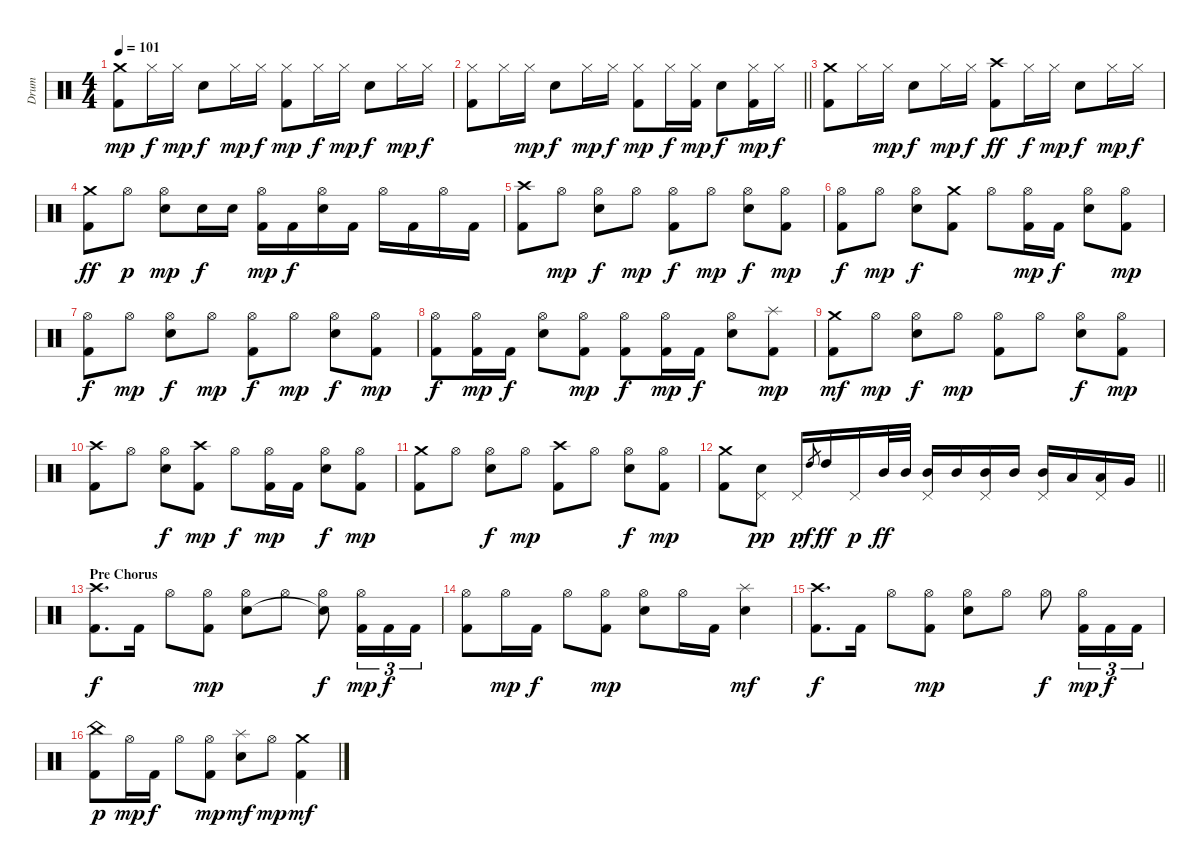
\track ("Drum" "Drum") {instrument percussion}
\staff {score}
\articulation defaults
\ts (4 4)
\tempo 101
\clef neutral
\ks c
("Crash medium (hit)" "Kick (hit) 2").8{dy mp} "Hi-Hat (closed)".16{dy f} "Hi-Hat (closed)".16{dy mp} "Snare (hit) 2".8{dy f} "Hi-Hat (closed)".16{dy mp} "Hi-Hat (closed)".16{dy f} ("Hi-Hat (closed)" "Kick (hit) 2").8{dy mp} "Hi-Hat (closed)".16{dy f} "Hi-Hat (closed)".16{dy mp} "Snare (hit) 2".8{dy f} "Hi-Hat (closed)".16{dy mp} "Hi-Hat (closed)".16{dy f} |
\barLineRight lightlight
("Hi-Hat (closed)" "Kick (hit) 2").8 "Hi-Hat (closed)".16 "Hi-Hat (closed)".16{dy mp} "Snare (hit) 2".8{dy f} "Hi-Hat (closed)".16{dy mp} "Hi-Hat (closed)".16{dy f} ("Hi-Hat (closed)" "Kick (hit) 2").8{dy mp} "Hi-Hat (closed)".16{dy f} ("Hi-Hat (closed)" "Kick (hit) 2").16{dy mp} "Snare (hit) 2".8{dy f} ("Hi-Hat (closed)" "Kick (hit) 2").16{dy mp} "Hi-Hat (closed)".16{dy f} |
("Crash medium (hit)" "Kick (hit) 2").8 "Hi-Hat (closed)".16 "Hi-Hat (closed)".16{dy mp} "Snare (hit) 2".8{dy f} "Hi-Hat (closed)".16{dy mp} "Hi-Hat (closed)".16{dy f} ("Crash high (hit)" "Kick (hit) 2").8{dy ff} "Hi-Hat (closed)".16{dy f} "Hi-Hat (closed)".16{dy mp} "Snare (hit) 2".8{dy f} "Hi-Hat (closed)".16{dy mp} "Hi-Hat (closed)".16{dy f} |
("Crash medium (hit)" "Kick (hit) 2").8{dy ff} "Hi-Hat (open)".8{dy p} ("Hi-Hat (open)" "Snare (hit) 2").8{dy mp} "Snare (hit) 2".16{dy f} "Snare (hit) 2".16 ("Hi-Hat (open)" "Kick (hit) 2").16{dy mp} "Kick (hit) 2".16{dy f} ("Hi-Hat (open)" "Snare (hit) 2").16 "Kick (hit) 2".16 "Hi-Hat (open)".16 "Kick (hit) 2".16 "Hi-Hat (open)".16 "Kick (hit) 2".16 |
("Crash high (hit)" "Kick (hit) 2").8 "Hi-Hat (open)".8{dy mp} ("Hi-Hat (open)" "Snare (hit) 2").8{dy f} "Hi-Hat (open)".8{dy mp} ("Hi-Hat (open)" "Kick (hit) 2").8{dy f} "Hi-Hat (open)".8{dy mp} ("Hi-Hat (open)" "Snare (hit) 2").8{dy f} ("Hi-Hat (open)" "Kick (hit) 2").8{dy mp} |
("Hi-Hat (open)" "Kick (hit) 2").8{dy f} "Hi-Hat (open)".8{dy mp} ("Hi-Hat (open)" "Snare (hit) 2").8{dy f} ("Crash medium (hit)" "Kick (hit) 2").8 "Hi-Hat (open)".8 ("Hi-Hat (open)" "Kick (hit) 2").16{dy mp} "Kick (hit) 2".16{dy f} ("Hi-Hat (open)" "Snare (hit) 2").8 ("Hi-Hat (open)" "Kick (hit) 2").8{dy mp} |
("Hi-Hat (open)" "Kick (hit) 2").8{dy f} "Hi-Hat (open)".8{dy mp} ("Hi-Hat (open)" "Snare (hit) 2").8{dy f} "Hi-Hat (open)".8{dy mp} ("Hi-Hat (open)" "Kick (hit) 2").8{dy f} "Hi-Hat (open)".8{dy mp} ("Hi-Hat (open)" "Snare (hit) 2").8{dy f} ("Hi-Hat (open)" "Kick (hit) 2").8{dy mp} |
("Hi-Hat (open)" "Kick (hit) 2").8{dy f} ("Hi-Hat (open)" "Kick (hit) 2").16{dy mp} "Kick (hit) 2".16{dy f} ("Hi-Hat (open)" "Snare (hit) 2").8 ("Hi-Hat (open)" "Kick (hit) 2").8{dy mp} ("Hi-Hat (open)" "Kick (hit) 2").8{dy f} ("Hi-Hat (open)" "Kick (hit) 2").16{dy mp} "Kick (hit) 2".16{dy f} ("Hi-Hat (open)" "Snare (hit) 2").8 ("Splash (hit)" "Kick (hit) 2").8{dy mp} |
("Crash medium (hit)" "Kick (hit) 2").8{dy mf} "Hi-Hat (open)".8{dy mp} ("Hi-Hat (open)" "Snare (hit) 2").8{dy f} "Hi-Hat (open)".8{dy mp} ("Hi-Hat (open)" "Kick (hit) 2").8 "Hi-Hat (open)".8 ("Hi-Hat (open)" "Snare (hit) 2").8{dy f} ("Hi-Hat (open)" "Kick (hit) 2").8{dy mp} |
("Crash high (hit)" "Kick (hit) 2").8 "Hi-Hat (open)".8 ("Hi-Hat (open)" "Snare (hit) 2").8{dy f} ("Crash high (hit)" "Kick (hit) 2").8{dy mp} "Hi-Hat (open)".8{dy f} ("Hi-Hat (open)" "Kick (hit) 2").16{dy mp} "Kick (hit) 2".16 ("Hi-Hat (open)" "Snare (hit) 2").8{dy f} ("Hi-Hat (open)" "Kick (hit) 2").8{dy mp} |
("Crash medium (hit)" "Kick (hit) 2").8 "Hi-Hat (open)".8 ("Hi-Hat (open)" "Snare (hit) 2").8{dy f} "Hi-Hat (open)".8{dy mp} ("Crash high (hit)" "Kick (hit) 2").8 "Hi-Hat (open)".8 ("Hi-Hat (open)" "Snare (hit) 2").8{dy f} ("Hi-Hat (open)" "Kick (hit) 2").8{dy mp} |
\barLineRight lightlight
("Crash medium (hit)" "Kick (hit) 2").8 ("Pedal Hi-Hat (hit)" "Snare (hit) 2").8{dy pp} "Pedal Hi-Hat (hit)".16{dy p} "High Tom (hit)".8{gr dy f} "High Tom (hit)".16{dy ff} "Pedal Hi-Hat (hit)".16{dy p} "Mid Tom (hit)".32{dy ff} "Mid Tom (hit)".32 ("Pedal Hi-Hat (hit)" "Mid Tom (hit)").16 "Mid Tom (hit)".16 ("Pedal Hi-Hat (hit)" "Mid Tom (hit)").16 "Mid Tom (hit)".16 ("Pedal Hi-Hat (hit)" "Mid Tom (hit)").16 "Low Tom (hit)".16 ("Pedal Hi-Hat (hit)" "Low Tom (hit)").16 "Very Low Tom (hit)".16 |
\section ("" "Pre Chorus")
("Crash high (hit)" "Kick (hit) 2").8{d dy f} "Kick (hit) 2".16 "Hi-Hat (open)".8 ("Hi-Hat (open)" "Kick (hit) 2").8{dy mp} ("Hi-Hat (open)" "Snare (hit) 2").8 "Hi-Hat (open)".8 ("Hi-Hat (open)" "Snare (hit)"{t}).8{dy f} ("Hi-Hat (open)" "Kick (hit) 2").16{tu (3 2) dy mp} "Kick (hit) 2".16{tu (3 2) dy f} "Kick (hit) 2".16{tu (3 2)} |
("Hi-Hat (open)" "Kick (hit) 2").8 "Hi-Hat (open)".16{dy mp} "Kick (hit) 2".16{dy f} "Hi-Hat (open)".8 ("Hi-Hat (open)" "Kick (hit) 2").8{dy mp} ("Hi-Hat (open)" "Snare (hit) 2").8 "Hi-Hat (open)".16 "Kick (hit) 2".16 ("Splash (hit)" "Snare (hit) 2").4{dy mf} |
("Crash high (hit)" "Kick (hit) 2").8{d dy f} "Kick (hit) 2".16 "Hi-Hat (open)".8 ("Hi-Hat (open)" "Kick (hit) 2").8{dy mp} ("Hi-Hat (open)" "Snare (hit) 2").8 "Hi-Hat (open)".8 "Hi-Hat (open)".8{dy f} ("Hi-Hat (open)" "Kick (hit) 2").16{tu (3 2) dy mp} "Kick (hit) 2".16{tu (3 2) dy f} "Kick (hit) 2".16{tu (3 2)} |
("China (hit)" "Kick (hit) 2").8{dy p} "Hi-Hat (open)".16{dy mp} "Kick (hit) 2".16{dy f} "Hi-Hat (open)".8 ("Hi-Hat (open)" "Kick (hit) 2").8{dy mp} ("Splash (hit)" "Snare (hit) 2").8{dy mf} "Hi-Hat (open)".8{dy mp} ("Crash medium (hit)" "Kick (hit) 2").4{dy mf}
